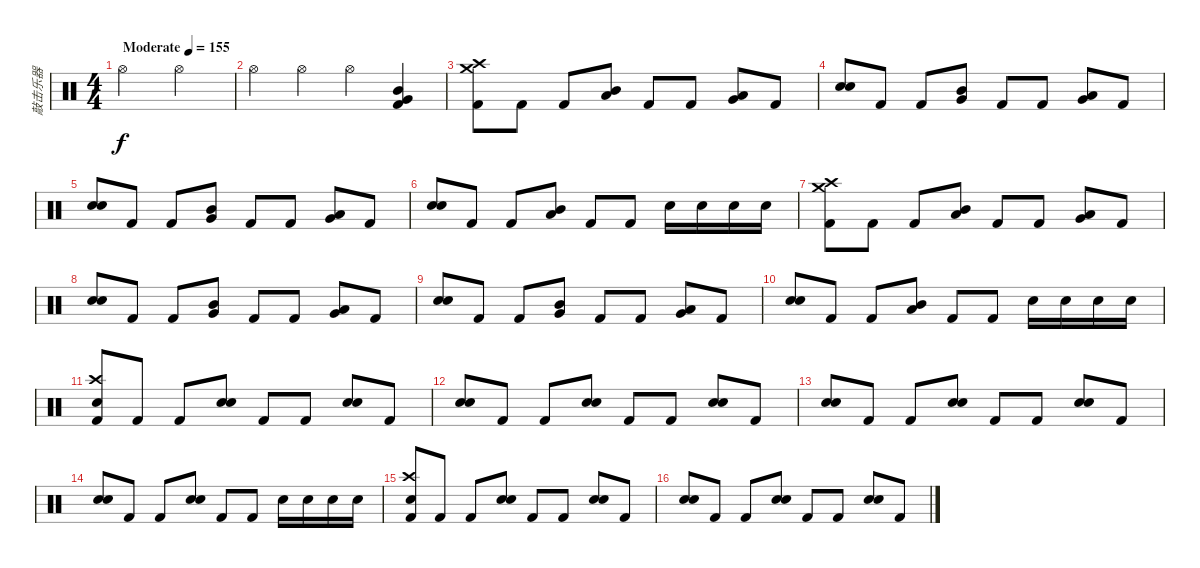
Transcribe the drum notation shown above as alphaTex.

\track ("敲击乐器" "敲击乐器") {instrument percussion}
\staff {score}
\articulation defaults
\ts (4 4)
\tempo (155 "Moderate")
\clef neutral
\ks c "Hi-Hat (open)".2{dy f} "Hi-Hat (open)".2
|
"Hi-Hat (open)".4 "Hi-Hat (open)".4 "Hi-Hat (open)".4 ("Mid Tom (hit)" "Very Low Tom (hit)" "Kick (hit) 2").4 |
("Crash high (hit)" "Crash medium (hit)" "Kick (hit) 2").8 "Kick (hit) 2".8 "Kick (hit) 2".8 ("Mid Tom (hit)" "Low Tom (hit)").8{bd 60} "Kick (hit) 2".8 "Kick (hit) 2".8 ("Low Tom (hit)" "Very Low Tom (hit)").8{bd 60} "Kick (hit) 2".8 |
("Snare (hit) 2" "Snare (hit) 2").8{bd 60} "Kick (hit) 2".8 "Kick (hit) 2".8 ("Very Low Tom (hit)" "Mid Tom (hit)").8{bd 60} "Kick (hit) 2".8 "Kick (hit) 2".8 ("Low Tom (hit)" "Very Low Tom (hit)").8{bd 60} "Kick (hit) 2".8 |
("Snare (hit) 2" "Snare (hit) 2").8{bd 60} "Kick (hit) 2".8 "Kick (hit) 2".8 ("Very Low Tom (hit)" "Mid Tom (hit)").8{bd 60} "Kick (hit) 2".8 "Kick (hit) 2".8 ("Low Tom (hit)" "Very Low Tom (hit)").8{bd 60} "Kick (hit) 2".8 |
("Snare (hit) 2" "Snare (hit) 2").8{bd 60} "Kick (hit) 2".8 "Kick (hit) 2".8 ("Mid Tom (hit)" "Low Tom (hit)").8{bd 60} "Kick (hit) 2".8 "Kick (hit) 2".8 "Snare (hit) 2".16 "Snare (hit) 2".16 "Snare (hit) 2".16 "Snare (hit) 2".16 |
("Crash high (hit)" "Crash medium (hit)" "Kick (hit) 2").8 "Kick (hit) 2".8 "Kick (hit) 2".8 ("Mid Tom (hit)" "Low Tom (hit)").8{bd 60} "Kick (hit) 2".8 "Kick (hit) 2".8 ("Low Tom (hit)" "Very Low Tom (hit)").8{bd 60} "Kick (hit) 2".8 |
("Snare (hit) 2" "Snare (hit) 2").8{bd 60} "Kick (hit) 2".8 "Kick (hit) 2".8 ("Very Low Tom (hit)" "Mid Tom (hit)").8{bd 60} "Kick (hit) 2".8 "Kick (hit) 2".8 ("Low Tom (hit)" "Very Low Tom (hit)").8{bd 60} "Kick (hit) 2".8 |
("Snare (hit) 2" "Snare (hit) 2").8{bd 60} "Kick (hit) 2".8 "Kick (hit) 2".8 ("Very Low Tom (hit)" "Mid Tom (hit)").8{bd 60} "Kick (hit) 2".8 "Kick (hit) 2".8 ("Low Tom (hit)" "Very Low Tom (hit)").8{bd 60} "Kick (hit) 2".8 |
("Snare (hit) 2" "Snare (hit) 2").8{bd 60} "Kick (hit) 2".8 "Kick (hit) 2".8 ("Mid Tom (hit)" "Low Tom (hit)").8{bd 60} "Kick (hit) 2".8 "Kick (hit) 2".8 "Snare (hit) 2".16 "Snare (hit) 2".16 "Snare (hit) 2".16 "Snare (hit) 2".16 |
("Crash high (hit)" "Snare (hit) 2" "Kick (hit) 2").8 "Kick (hit) 2".8 "Kick (hit) 2".8 ("Snare (hit) 2" "Snare (hit) 2").8{bd 60} "Kick (hit) 2".8 "Kick (hit) 2".8 ("Snare (hit) 2" "Snare (hit) 2").8{bd 60} "Kick (hit) 2".8 |
("Snare (hit) 2" "Snare (hit) 2").8{bd 60} "Kick (hit) 2".8 "Kick (hit) 2".8 ("Snare (hit) 2" "Snare (hit) 2").8{bd 60} "Kick (hit) 2".8 "Kick (hit) 2".8 ("Snare (hit) 2" "Snare (hit) 2").8{bd 60} "Kick (hit) 2".8 |
("Snare (hit) 2" "Snare (hit) 2").8{bd 60} "Kick (hit) 2".8 "Kick (hit) 2".8 ("Snare (hit) 2" "Snare (hit) 2").8{bd 60} "Kick (hit) 2".8 "Kick (hit) 2".8 ("Snare (hit) 2" "Snare (hit) 2").8{bd 60} "Kick (hit) 2".8 |
("Snare (hit) 2" "Snare (hit) 2").8{bd 60} "Kick (hit) 2".8 "Kick (hit) 2".8 ("Snare (hit) 2" "Snare (hit) 2").8{bd 60} "Kick (hit) 2".8 "Kick (hit) 2".8 "Snare (hit) 2".16 "Snare (hit) 2".16 "Snare (hit) 2".16 "Snare (hit) 2".16 |
("Crash high (hit)" "Snare (hit) 2" "Kick (hit) 2").8 "Kick (hit) 2".8 "Kick (hit) 2".8 ("Snare (hit) 2" "Snare (hit) 2").8{bd 60} "Kick (hit) 2".8 "Kick (hit) 2".8 ("Snare (hit) 2" "Snare (hit) 2").8{bd 60} "Kick (hit) 2".8 |
("Snare (hit) 2" "Snare (hit) 2").8{bd 60} "Kick (hit) 2".8 "Kick (hit) 2".8 ("Snare (hit) 2" "Snare (hit) 2").8{bd 60} "Kick (hit) 2".8 "Kick (hit) 2".8 ("Snare (hit) 2" "Snare (hit) 2").8{bd 60} "Kick (hit) 2".8
